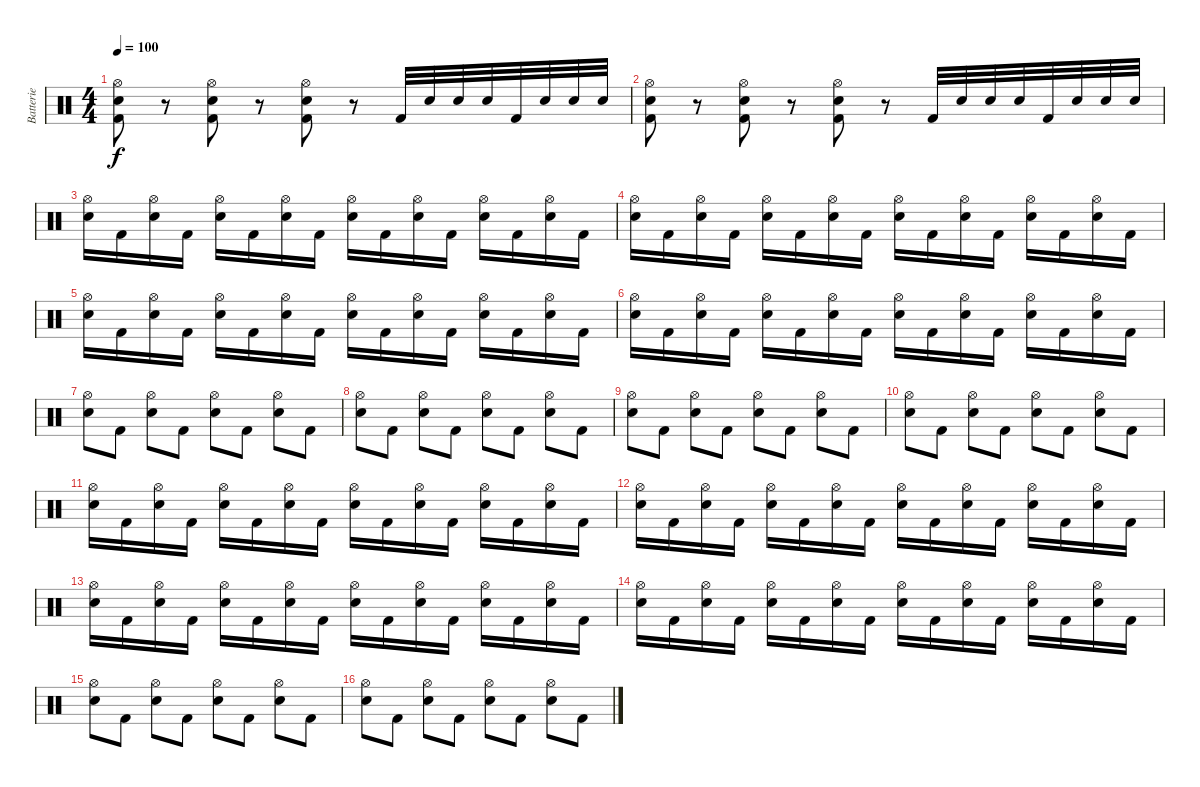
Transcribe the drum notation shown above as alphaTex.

\track ("Batterie" "Batterie") {instrument percussion}
\staff {score}
\articulation defaults
\ts (4 4)
\tempo 100
\clef neutral
\ks c
("Electric Snare (hit)" "Kick (hit) 2" "Hi-Hat (open)").8{dy f} r.8 ("Electric Snare (hit)" "Kick (hit) 2" "Hi-Hat (open)").8 r.8 ("Electric Snare (hit)" "Kick (hit) 2" "Hi-Hat (open)").8 r.8 "Kick (hit) 2".32 "Electric Snare (hit)".32 "Electric Snare (hit)".32 "Electric Snare (hit)".32 "Kick (hit) 2".32 "Electric Snare (hit)".32 "Electric Snare (hit)".32 "Electric Snare (hit)".32 |
("Electric Snare (hit)" "Kick (hit) 2" "Hi-Hat (open)").8 r.8 ("Electric Snare (hit)" "Kick (hit) 2" "Hi-Hat (open)").8 r.8 ("Electric Snare (hit)" "Kick (hit) 2" "Hi-Hat (open)").8 r.8 "Kick (hit) 2".32 "Electric Snare (hit)".32 "Electric Snare (hit)".32 "Electric Snare (hit)".32 "Kick (hit) 2".32 "Electric Snare (hit)".32 "Electric Snare (hit)".32 "Electric Snare (hit)".32 |
("Hi-Hat (open)" "Electric Snare (hit)").16 "Kick (hit) 2".16 ("Hi-Hat (open)" "Electric Snare (hit)").16 "Kick (hit) 2".16 ("Hi-Hat (open)" "Electric Snare (hit)").16 "Kick (hit) 2".16 ("Hi-Hat (open)" "Electric Snare (hit)").16 "Kick (hit) 2".16 ("Hi-Hat (open)" "Electric Snare (hit)").16 "Kick (hit) 2".16 ("Hi-Hat (open)" "Electric Snare (hit)").16 "Kick (hit) 2".16 ("Hi-Hat (open)" "Electric Snare (hit)").16 "Kick (hit) 2".16 ("Hi-Hat (open)" "Electric Snare (hit)").16 "Kick (hit) 2".16 |
("Hi-Hat (open)" "Electric Snare (hit)").16 "Kick (hit) 2".16 ("Hi-Hat (open)" "Electric Snare (hit)").16 "Kick (hit) 2".16 ("Hi-Hat (open)" "Electric Snare (hit)").16 "Kick (hit) 2".16 ("Hi-Hat (open)" "Electric Snare (hit)").16 "Kick (hit) 2".16 ("Hi-Hat (open)" "Electric Snare (hit)").16 "Kick (hit) 2".16 ("Hi-Hat (open)" "Electric Snare (hit)").16 "Kick (hit) 2".16 ("Hi-Hat (open)" "Electric Snare (hit)").16 "Kick (hit) 2".16 ("Hi-Hat (open)" "Electric Snare (hit)").16 "Kick (hit) 2".16 |
("Hi-Hat (open)" "Electric Snare (hit)").16 "Kick (hit) 2".16 ("Hi-Hat (open)" "Electric Snare (hit)").16 "Kick (hit) 2".16 ("Hi-Hat (open)" "Electric Snare (hit)").16 "Kick (hit) 2".16 ("Hi-Hat (open)" "Electric Snare (hit)").16 "Kick (hit) 2".16 ("Hi-Hat (open)" "Electric Snare (hit)").16 "Kick (hit) 2".16 ("Hi-Hat (open)" "Electric Snare (hit)").16 "Kick (hit) 2".16 ("Hi-Hat (open)" "Electric Snare (hit)").16 "Kick (hit) 2".16 ("Hi-Hat (open)" "Electric Snare (hit)").16 "Kick (hit) 2".16 |
("Hi-Hat (open)" "Electric Snare (hit)").16 "Kick (hit) 2".16 ("Hi-Hat (open)" "Electric Snare (hit)").16 "Kick (hit) 2".16 ("Hi-Hat (open)" "Electric Snare (hit)").16 "Kick (hit) 2".16 ("Hi-Hat (open)" "Electric Snare (hit)").16 "Kick (hit) 2".16 ("Hi-Hat (open)" "Electric Snare (hit)").16 "Kick (hit) 2".16 ("Hi-Hat (open)" "Electric Snare (hit)").16 "Kick (hit) 2".16 ("Hi-Hat (open)" "Electric Snare (hit)").16 "Kick (hit) 2".16 ("Hi-Hat (open)" "Electric Snare (hit)").16 "Kick (hit) 2".16 |
("Hi-Hat (open)" "Electric Snare (hit)").8 "Kick (hit) 2".8 ("Hi-Hat (open)" "Electric Snare (hit)").8 "Kick (hit) 2".8 ("Hi-Hat (open)" "Electric Snare (hit)").8 "Kick (hit) 2".8 ("Hi-Hat (open)" "Electric Snare (hit)").8 "Kick (hit) 2".8 |
("Hi-Hat (open)" "Electric Snare (hit)").8 "Kick (hit) 2".8 ("Hi-Hat (open)" "Electric Snare (hit)").8 "Kick (hit) 2".8 ("Hi-Hat (open)" "Electric Snare (hit)").8 "Kick (hit) 2".8 ("Hi-Hat (open)" "Electric Snare (hit)").8 "Kick (hit) 2".8 |
("Hi-Hat (open)" "Electric Snare (hit)").8 "Kick (hit) 2".8 ("Hi-Hat (open)" "Electric Snare (hit)").8 "Kick (hit) 2".8 ("Hi-Hat (open)" "Electric Snare (hit)").8 "Kick (hit) 2".8 ("Hi-Hat (open)" "Electric Snare (hit)").8 "Kick (hit) 2".8 |
("Hi-Hat (open)" "Electric Snare (hit)").8 "Kick (hit) 2".8 ("Hi-Hat (open)" "Electric Snare (hit)").8 "Kick (hit) 2".8 ("Hi-Hat (open)" "Electric Snare (hit)").8 "Kick (hit) 2".8 ("Hi-Hat (open)" "Electric Snare (hit)").8 "Kick (hit) 2".8 |
("Hi-Hat (open)" "Electric Snare (hit)").16 "Kick (hit) 2".16 ("Hi-Hat (open)" "Electric Snare (hit)").16 "Kick (hit) 2".16 ("Hi-Hat (open)" "Electric Snare (hit)").16 "Kick (hit) 2".16 ("Hi-Hat (open)" "Electric Snare (hit)").16 "Kick (hit) 2".16 ("Hi-Hat (open)" "Electric Snare (hit)").16 "Kick (hit) 2".16 ("Hi-Hat (open)" "Electric Snare (hit)").16 "Kick (hit) 2".16 ("Hi-Hat (open)" "Electric Snare (hit)").16 "Kick (hit) 2".16 ("Hi-Hat (open)" "Electric Snare (hit)").16 "Kick (hit) 2".16 |
("Hi-Hat (open)" "Electric Snare (hit)").16 "Kick (hit) 2".16 ("Hi-Hat (open)" "Electric Snare (hit)").16 "Kick (hit) 2".16 ("Hi-Hat (open)" "Electric Snare (hit)").16 "Kick (hit) 2".16 ("Hi-Hat (open)" "Electric Snare (hit)").16 "Kick (hit) 2".16 ("Hi-Hat (open)" "Electric Snare (hit)").16 "Kick (hit) 2".16 ("Hi-Hat (open)" "Electric Snare (hit)").16 "Kick (hit) 2".16 ("Hi-Hat (open)" "Electric Snare (hit)").16 "Kick (hit) 2".16 ("Hi-Hat (open)" "Electric Snare (hit)").16 "Kick (hit) 2".16 |
("Hi-Hat (open)" "Electric Snare (hit)").16 "Kick (hit) 2".16 ("Hi-Hat (open)" "Electric Snare (hit)").16 "Kick (hit) 2".16 ("Hi-Hat (open)" "Electric Snare (hit)").16 "Kick (hit) 2".16 ("Hi-Hat (open)" "Electric Snare (hit)").16 "Kick (hit) 2".16 ("Hi-Hat (open)" "Electric Snare (hit)").16 "Kick (hit) 2".16 ("Hi-Hat (open)" "Electric Snare (hit)").16 "Kick (hit) 2".16 ("Hi-Hat (open)" "Electric Snare (hit)").16 "Kick (hit) 2".16 ("Hi-Hat (open)" "Electric Snare (hit)").16 "Kick (hit) 2".16 |
("Hi-Hat (open)" "Electric Snare (hit)").16 "Kick (hit) 2".16 ("Hi-Hat (open)" "Electric Snare (hit)").16 "Kick (hit) 2".16 ("Hi-Hat (open)" "Electric Snare (hit)").16 "Kick (hit) 2".16 ("Hi-Hat (open)" "Electric Snare (hit)").16 "Kick (hit) 2".16 ("Hi-Hat (open)" "Electric Snare (hit)").16 "Kick (hit) 2".16 ("Hi-Hat (open)" "Electric Snare (hit)").16 "Kick (hit) 2".16 ("Hi-Hat (open)" "Electric Snare (hit)").16 "Kick (hit) 2".16 ("Hi-Hat (open)" "Electric Snare (hit)").16 "Kick (hit) 2".16 |
("Hi-Hat (open)" "Electric Snare (hit)").8 "Kick (hit) 2".8 ("Hi-Hat (open)" "Electric Snare (hit)").8 "Kick (hit) 2".8 ("Hi-Hat (open)" "Electric Snare (hit)").8 "Kick (hit) 2".8 ("Hi-Hat (open)" "Electric Snare (hit)").8 "Kick (hit) 2".8 |
("Hi-Hat (open)" "Electric Snare (hit)").8 "Kick (hit) 2".8 ("Hi-Hat (open)" "Electric Snare (hit)").8 "Kick (hit) 2".8 ("Hi-Hat (open)" "Electric Snare (hit)").8 "Kick (hit) 2".8 ("Hi-Hat (open)" "Electric Snare (hit)").8 "Kick (hit) 2".8
